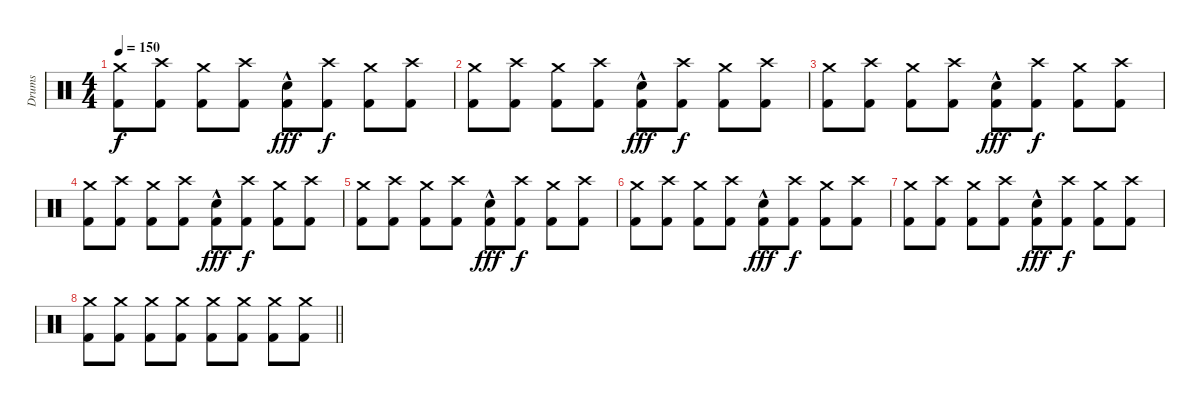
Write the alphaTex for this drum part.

\track ("Drums" "Drums") {instrument percussion}
\staff {score}
\articulation defaults
\ts (4 4)
\tempo 150
\clef neutral
\ks c
("Crash medium (hit)" "Kick (hit) 2").8{dy f} ("Crash high (hit)" "Kick (hit) 2").8 ("Crash medium (hit)" "Kick (hit) 2").8 ("Crash high (hit)" "Kick (hit) 2").8 ("Electric Snare (hit)"{hac} "Kick (hit) 2").8{dy fff} ("Crash high (hit)" "Kick (hit) 2").8{dy f} ("Crash medium (hit)" "Kick (hit) 2").8 ("Crash high (hit)" "Kick (hit) 2").8 |
("Crash medium (hit)" "Kick (hit) 2").8 ("Crash high (hit)" "Kick (hit) 2").8 ("Crash medium (hit)" "Kick (hit) 2").8 ("Crash high (hit)" "Kick (hit) 2").8 ("Electric Snare (hit)"{hac} "Kick (hit) 2").8{dy fff} ("Crash high (hit)" "Kick (hit) 2").8{dy f} ("Crash medium (hit)" "Kick (hit) 2").8 ("Crash high (hit)" "Kick (hit) 2").8 |
("Crash medium (hit)" "Kick (hit) 2").8 ("Crash high (hit)" "Kick (hit) 2").8 ("Crash medium (hit)" "Kick (hit) 2").8 ("Crash high (hit)" "Kick (hit) 2").8 ("Electric Snare (hit)"{hac} "Kick (hit) 2").8{dy fff} ("Crash high (hit)" "Kick (hit) 2").8{dy f} ("Crash medium (hit)" "Kick (hit) 2").8 ("Crash high (hit)" "Kick (hit) 2").8 |
("Crash medium (hit)" "Kick (hit) 2").8 ("Crash high (hit)" "Kick (hit) 2").8 ("Crash medium (hit)" "Kick (hit) 2").8 ("Crash high (hit)" "Kick (hit) 2").8 ("Electric Snare (hit)"{hac} "Kick (hit) 2").8{dy fff} ("Crash high (hit)" "Kick (hit) 2").8{dy f} ("Crash medium (hit)" "Kick (hit) 2").8 ("Crash high (hit)" "Kick (hit) 2").8 |
("Crash medium (hit)" "Kick (hit) 2").8 ("Crash high (hit)" "Kick (hit) 2").8 ("Crash medium (hit)" "Kick (hit) 2").8 ("Crash high (hit)" "Kick (hit) 2").8 ("Electric Snare (hit)"{hac} "Kick (hit) 2").8{dy fff} ("Crash high (hit)" "Kick (hit) 2").8{dy f} ("Crash medium (hit)" "Kick (hit) 2").8 ("Crash high (hit)" "Kick (hit) 2").8 |
("Crash medium (hit)" "Kick (hit) 2").8 ("Crash high (hit)" "Kick (hit) 2").8 ("Crash medium (hit)" "Kick (hit) 2").8 ("Crash high (hit)" "Kick (hit) 2").8 ("Electric Snare (hit)"{hac} "Kick (hit) 2").8{dy fff} ("Crash high (hit)" "Kick (hit) 2").8{dy f} ("Crash medium (hit)" "Kick (hit) 2").8 ("Crash high (hit)" "Kick (hit) 2").8 |
("Crash medium (hit)" "Kick (hit) 2").8 ("Crash high (hit)" "Kick (hit) 2").8 ("Crash medium (hit)" "Kick (hit) 2").8 ("Crash high (hit)" "Kick (hit) 2").8 ("Electric Snare (hit)"{hac} "Kick (hit) 2").8{dy fff} ("Crash high (hit)" "Kick (hit) 2").8{dy f} ("Crash medium (hit)" "Kick (hit) 2").8 ("Crash high (hit)" "Kick (hit) 2").8 |
\barLineRight lightlight
("Crash medium (hit)" "Kick (hit) 2").8 ("Crash medium (hit)" "Kick (hit) 2").8 ("Crash medium (hit)" "Kick (hit) 2").8 ("Crash medium (hit)" "Kick (hit) 2").8 ("Crash medium (hit)" "Kick (hit) 2").8 ("Crash medium (hit)" "Kick (hit) 2").8 ("Crash medium (hit)" "Kick (hit) 2").8 ("Crash medium (hit)" "Kick (hit) 2").8
